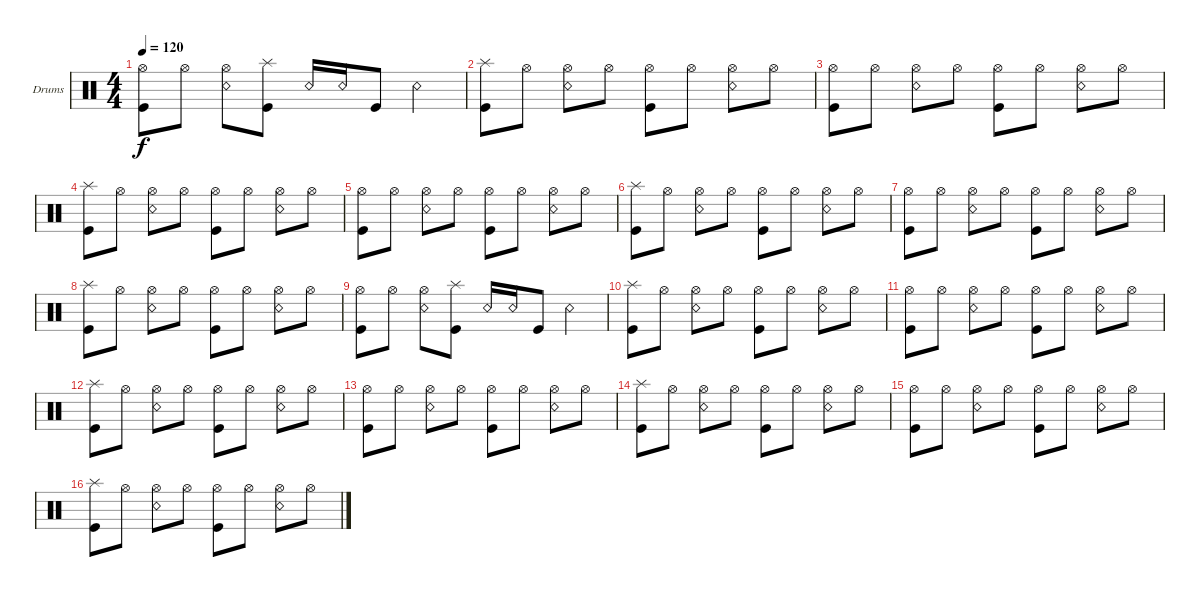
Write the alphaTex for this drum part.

\defaultSystemsLayout 4
\bracketExtendMode groupsimilarinstruments
\firstSystemTrackNameOrientation horizontal
\otherSystemsTrackNameOrientation horizontal
\track ("Drumkit" "Drums") {instrument percussion}
\staff {score}
\articulation defaults
\ts (4 4)
\tempo 120
\clef neutral
\scale
0.333333
\ks c
("Kick (hit)" "Hi-Hat (open)").8{dy f} "Hi-Hat (open)".8 ("Hi-Hat (open)" "Snare (rim shot)").8 ("Kick (hit)" "Splash (hit)").8 "Snare (rim shot)".16 "Snare (rim shot)".16 "Kick (hit)".8 "Snare (rim shot)".4 |
\scale
0.333333 ("Kick (hit)" "Splash (hit)").8 "Hi-Hat (open)".8 ("Hi-Hat (open)" "Snare (rim shot)").8 "Hi-Hat (open)".8 ("Hi-Hat (open)" "Kick (hit)").8 "Hi-Hat (open)".8 ("Hi-Hat (open)" "Snare (rim shot)").8 "Hi-Hat (open)".8 |
\scale
0.333333 ("Kick (hit)" "Hi-Hat (open)").8 "Hi-Hat (open)".8 ("Hi-Hat (open)" "Snare (rim shot)").8 "Hi-Hat (open)".8 ("Hi-Hat (open)" "Kick (hit)").8 "Hi-Hat (open)".8 ("Hi-Hat (open)" "Snare (rim shot)").8 "Hi-Hat (open)".8 |
\scale
0.333333 ("Kick (hit)" "Splash (hit)").8 "Hi-Hat (open)".8 ("Hi-Hat (open)" "Snare (rim shot)").8 "Hi-Hat (open)".8 ("Hi-Hat (open)" "Kick (hit)").8 "Hi-Hat (open)".8 ("Hi-Hat (open)" "Snare (rim shot)").8 "Hi-Hat (open)".8 |
\scale
0.333333 ("Kick (hit)" "Hi-Hat (open)").8 "Hi-Hat (open)".8 ("Hi-Hat (open)" "Snare (rim shot)").8 "Hi-Hat (open)".8 ("Hi-Hat (open)" "Kick (hit)").8 "Hi-Hat (open)".8 ("Hi-Hat (open)" "Snare (rim shot)").8 "Hi-Hat (open)".8 |
\scale
0.333333 ("Kick (hit)" "Splash (hit)").8 "Hi-Hat (open)".8 ("Hi-Hat (open)" "Snare (rim shot)").8 "Hi-Hat (open)".8 ("Hi-Hat (open)" "Kick (hit)").8 "Hi-Hat (open)".8 ("Hi-Hat (open)" "Snare (rim shot)").8 "Hi-Hat (open)".8 |
\scale
0.333333 ("Kick (hit)" "Hi-Hat (open)").8 "Hi-Hat (open)".8 ("Hi-Hat (open)" "Snare (rim shot)").8 "Hi-Hat (open)".8 ("Hi-Hat (open)" "Kick (hit)").8 "Hi-Hat (open)".8 ("Hi-Hat (open)" "Snare (rim shot)").8 "Hi-Hat (open)".8 |
\scale
0.333333 ("Kick (hit)" "Splash (hit)").8 "Hi-Hat (open)".8 ("Hi-Hat (open)" "Snare (rim shot)").8 "Hi-Hat (open)".8 ("Hi-Hat (open)" "Kick (hit)").8 "Hi-Hat (open)".8 ("Hi-Hat (open)" "Snare (rim shot)").8 "Hi-Hat (open)".8 |
\scale
0.333333 ("Kick (hit)" "Hi-Hat (open)").8 "Hi-Hat (open)".8 ("Hi-Hat (open)" "Snare (rim shot)").8 ("Kick (hit)" "Splash (hit)").8 "Snare (rim shot)".16 "Snare (rim shot)".16 "Kick (hit)".8 "Snare (rim shot)".4 |
\scale
0.333333 ("Kick (hit)" "Splash (hit)").8 "Hi-Hat (open)".8 ("Hi-Hat (open)" "Snare (rim shot)").8 "Hi-Hat (open)".8 ("Hi-Hat (open)" "Kick (hit)").8 "Hi-Hat (open)".8 ("Hi-Hat (open)" "Snare (rim shot)").8 "Hi-Hat (open)".8 |
\scale
0.333333 ("Kick (hit)" "Hi-Hat (open)").8 "Hi-Hat (open)".8 ("Hi-Hat (open)" "Snare (rim shot)").8 "Hi-Hat (open)".8 ("Hi-Hat (open)" "Kick (hit)").8 "Hi-Hat (open)".8 ("Hi-Hat (open)" "Snare (rim shot)").8 "Hi-Hat (open)".8 |
\scale
0.333333 ("Kick (hit)" "Splash (hit)").8 "Hi-Hat (open)".8 ("Hi-Hat (open)" "Snare (rim shot)").8 "Hi-Hat (open)".8 ("Hi-Hat (open)" "Kick (hit)").8 "Hi-Hat (open)".8 ("Hi-Hat (open)" "Snare (rim shot)").8 "Hi-Hat (open)".8 |
\scale
0.333333 ("Kick (hit)" "Hi-Hat (open)").8 "Hi-Hat (open)".8 ("Hi-Hat (open)" "Snare (rim shot)").8 "Hi-Hat (open)".8 ("Hi-Hat (open)" "Kick (hit)").8 "Hi-Hat (open)".8 ("Hi-Hat (open)" "Snare (rim shot)").8 "Hi-Hat (open)".8 |
\scale
0.333333 ("Kick (hit)" "Splash (hit)").8 "Hi-Hat (open)".8 ("Hi-Hat (open)" "Snare (rim shot)").8 "Hi-Hat (open)".8 ("Hi-Hat (open)" "Kick (hit)").8 "Hi-Hat (open)".8 ("Hi-Hat (open)" "Snare (rim shot)").8 "Hi-Hat (open)".8 |
\scale
0.333333 ("Kick (hit)" "Hi-Hat (open)").8 "Hi-Hat (open)".8 ("Hi-Hat (open)" "Snare (rim shot)").8 "Hi-Hat (open)".8 ("Hi-Hat (open)" "Kick (hit)").8 "Hi-Hat (open)".8 ("Hi-Hat (open)" "Snare (rim shot)").8 "Hi-Hat (open)".8 |
\scale
0.333333 ("Kick (hit)" "Splash (hit)").8 "Hi-Hat (open)".8 ("Hi-Hat (open)" "Snare (rim shot)").8 "Hi-Hat (open)".8 ("Hi-Hat (open)" "Kick (hit)").8 "Hi-Hat (open)".8 ("Hi-Hat (open)" "Snare (rim shot)").8 "Hi-Hat (open)".8
